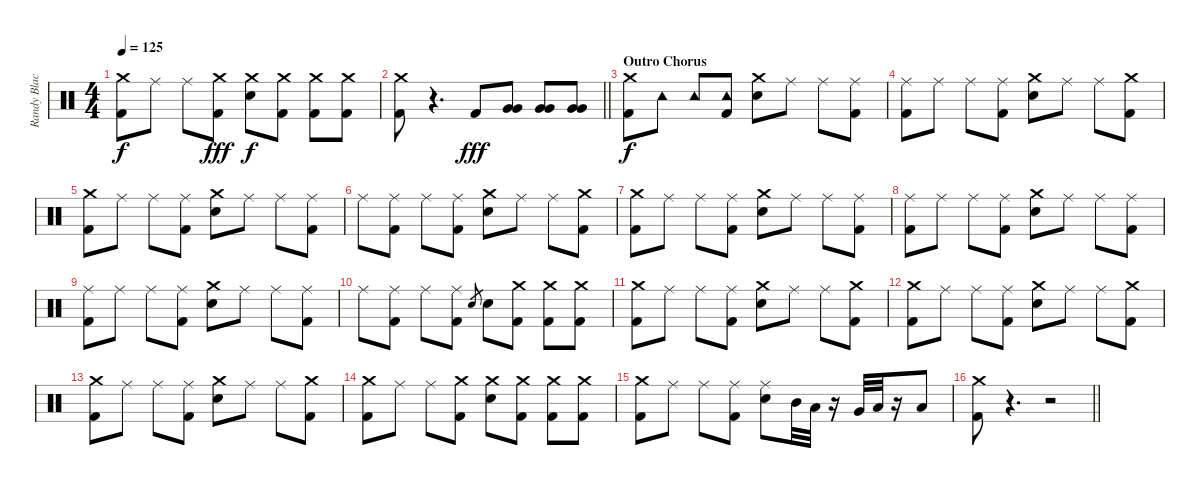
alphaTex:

\track ("Randy Black" "Randy Blac") {instrument percussion}
\staff {score}
\articulation defaults
\ts (4 4)
\tempo 125
\clef neutral
\ks c
("Crash medium (hit)" "Kick (hit) 2").8{dy f} "Ride (middle)".8 "Ride (middle)".8 ("Crash medium (hit)" "Kick (hit) 2").8{dy fff} ("Crash medium (hit)" "Electric Snare (hit)").8{dy f} ("Crash medium (hit)" "Kick (hit) 2").8 ("Crash medium (hit)" "Kick (hit) 2").8 ("Crash medium (hit)" "Kick (hit) 2").8 |
\barLineRight lightlight
("Crash medium (hit)" "Kick (hit) 2").8 r.4{d} "Kick (hit) 2".8{dy fff} ("Very Low Tom (hit)" "Very Low Tom (hit)").8 ("Very Low Tom (hit)" "Very Low Tom (hit)").8 ("Very Low Tom (hit)" "Very Low Tom (hit)").8 |
\section ("" "Outro Chorus")
("Crash medium (hit)" "Kick (hit) 2").8{dy f} "Tambourine (hit)".8 "Tambourine (hit)".8 ("Tambourine (hit)" "Kick (hit) 2").8 ("Crash medium (hit)" "Electric Snare (hit)").8 "Ride (middle)".8 "Ride (middle)".8 ("Ride (middle)" "Kick (hit) 2").8 |
("Ride (middle)" "Kick (hit) 2").8 "Ride (middle)".8 "Ride (middle)".8 ("Ride (middle)" "Kick (hit) 2").8 ("Crash medium (hit)" "Electric Snare (hit)").8 "Ride (middle)".8 "Ride (middle)".8 ("Crash medium (hit)" "Kick (hit) 2").8 |
("Crash medium (hit)" "Kick (hit) 2").8 "Ride (middle)".8 "Ride (middle)".8 ("Ride (middle)" "Kick (hit) 2").8 ("Crash medium (hit)" "Electric Snare (hit)").8 "Ride (middle)".8 "Ride (middle)".8 ("Ride (middle)" "Kick (hit) 2").8 |
"Ride (middle)".8 ("Ride (middle)" "Kick (hit) 2").8 "Ride (middle)".8 ("Ride (middle)" "Kick (hit) 2").8 ("Crash medium (hit)" "Electric Snare (hit)").8 "Ride (middle)".8 "Ride (middle)".8 ("Crash medium (hit)" "Kick (hit) 2").8 |
("Crash medium (hit)" "Kick (hit) 2").8 "Ride (middle)".8 "Ride (middle)".8 ("Ride (middle)" "Kick (hit) 2").8 ("Crash medium (hit)" "Electric Snare (hit)").8 "Ride (middle)".8 "Ride (middle)".8 ("Ride (middle)" "Kick (hit) 2").8 |
("Ride (middle)" "Kick (hit) 2").8 "Ride (middle)".8 "Ride (middle)".8 ("Ride (middle)" "Kick (hit) 2").8 ("Crash medium (hit)" "Electric Snare (hit)").8 "Ride (middle)".8 "Ride (middle)".8 ("Ride (middle)" "Kick (hit) 2").8 |
("Ride (middle)" "Kick (hit) 2").8 "Ride (middle)".8 "Ride (middle)".8 ("Ride (middle)" "Kick (hit) 2").8 ("Crash medium (hit)" "Electric Snare (hit)").8 "Ride (middle)".8 "Ride (middle)".8 ("Ride (middle)" "Kick (hit) 2").8 |
"Ride (middle)".8 ("Ride (middle)" "Kick (hit) 2").8 "Ride (middle)".8 ("Ride (middle)" "Kick (hit) 2").8 "Electric Snare (hit)".8{gr} "Electric Snare (hit)".8 ("Crash medium (hit)" "Kick (hit) 2").8 ("Crash medium (hit)" "Kick (hit) 2").8 ("Crash medium (hit)" "Kick (hit) 2").8 |
("Crash medium (hit)" "Kick (hit) 2").8 "Ride (middle)".8 "Ride (middle)".8 ("Ride (middle)" "Kick (hit) 2").8 ("Crash medium (hit)" "Electric Snare (hit)").8 "Ride (middle)".8 "Ride (middle)".8 ("Crash medium (hit)" "Kick (hit) 2").8 |
("Crash medium (hit)" "Kick (hit) 2").8 "Ride (middle)".8 "Ride (middle)".8 ("Ride (middle)" "Kick (hit) 2").8 ("Crash medium (hit)" "Electric Snare (hit)").8 "Ride (middle)".8 "Ride (middle)".8 ("Crash medium (hit)" "Kick (hit) 2").8 |
("Crash medium (hit)" "Kick (hit) 2").8 "Ride (middle)".8 "Ride (middle)".8 ("Ride (middle)" "Kick (hit) 2").8 ("Crash medium (hit)" "Electric Snare (hit)").8 "Ride (middle)".8 "Ride (middle)".8 ("Crash medium (hit)" "Kick (hit) 2").8 |
("Crash medium (hit)" "Kick (hit) 2").8 "Ride (middle)".8 "Ride (middle)".8 ("Crash medium (hit)" "Kick (hit) 2").8 ("Crash medium (hit)" "Electric Snare (hit)").8 ("Crash medium (hit)" "Kick (hit) 2").8 ("Crash medium (hit)" "Kick (hit) 2").8 ("Crash medium (hit)" "Kick (hit) 2").8 |
("Crash medium (hit)" "Kick (hit) 2").8 "Ride (middle)".8 "Ride (middle)".8 ("Ride (middle)" "Kick (hit) 2").8 ("Ride (middle)" "Electric Snare (hit)").8 "Mid Tom (hit)".32 "Low Tom (hit)".32 r.16 "Very Low Tom (hit)".32 "Low Floor Tom (hit)".32 r.16 "Low Floor Tom (hit)".8 |
\barLineRight lightlight
("Crash medium (hit)" "Kick (hit) 2").8 r.4{d} r.2
